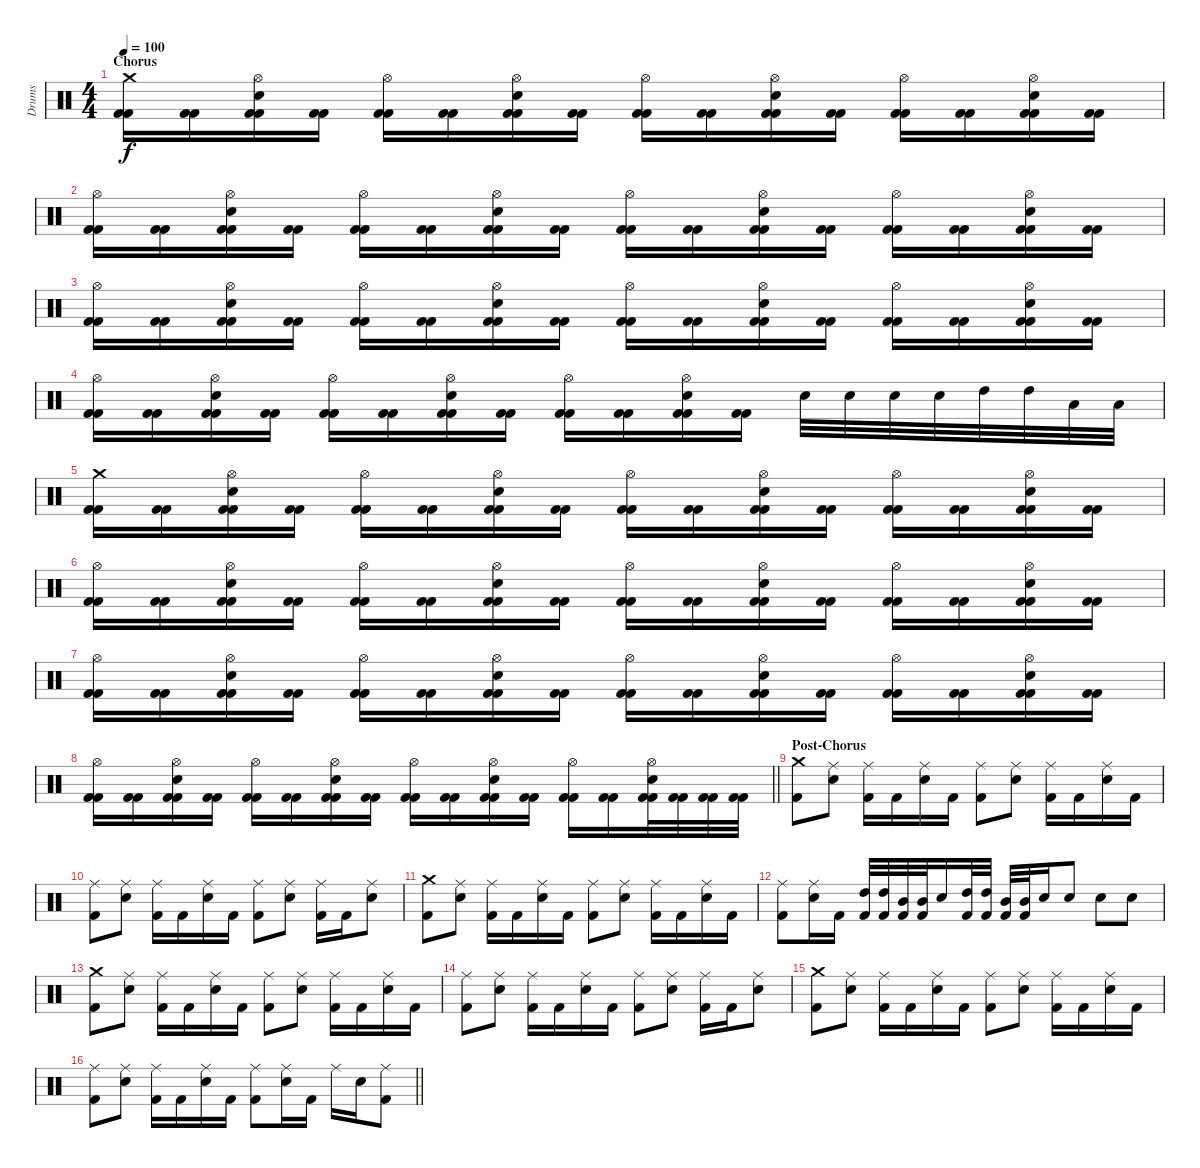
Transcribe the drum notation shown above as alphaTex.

\track ("Drums" "Drums") {instrument percussion}
\staff {score}
\articulation defaults
\ts (4 4)
\section ("" "Chorus")
\tempo 100
\clef neutral
\ks c
("Crash medium (hit)" "Kick (hit) 2" "Kick (hit) 2").16{dy f} ("Kick (hit) 2" "Kick (hit) 2").16 ("Hi-Hat (open)" "Electric Snare (hit)" "Kick (hit) 2" "Kick (hit) 2").16 ("Kick (hit) 2" "Kick (hit) 2").16 ("Hi-Hat (open)" "Kick (hit) 2" "Kick (hit) 2").16 ("Kick (hit) 2" "Kick (hit) 2").16 ("Hi-Hat (open)" "Electric Snare (hit)" "Kick (hit) 2" "Kick (hit) 2").16 ("Kick (hit) 2" "Kick (hit) 2").16 ("Hi-Hat (open)" "Kick (hit) 2" "Kick (hit) 2").16 ("Kick (hit) 2" "Kick (hit) 2").16 ("Hi-Hat (open)" "Electric Snare (hit)" "Kick (hit) 2" "Kick (hit) 2").16 ("Kick (hit) 2" "Kick (hit) 2").16 ("Hi-Hat (open)" "Kick (hit) 2" "Kick (hit) 2").16 ("Kick (hit) 2" "Kick (hit) 2").16 ("Hi-Hat (open)" "Electric Snare (hit)" "Kick (hit) 2" "Kick (hit) 2").16 ("Kick (hit) 2" "Kick (hit) 2").16 |
("Hi-Hat (open)" "Kick (hit) 2" "Kick (hit) 2").16 ("Kick (hit) 2" "Kick (hit) 2").16 ("Hi-Hat (open)" "Electric Snare (hit)" "Kick (hit) 2" "Kick (hit) 2").16 ("Kick (hit) 2" "Kick (hit) 2").16 ("Hi-Hat (open)" "Kick (hit) 2" "Kick (hit) 2").16 ("Kick (hit) 2" "Kick (hit) 2").16 ("Hi-Hat (open)" "Electric Snare (hit)" "Kick (hit) 2" "Kick (hit) 2").16 ("Kick (hit) 2" "Kick (hit) 2").16 ("Hi-Hat (open)" "Kick (hit) 2" "Kick (hit) 2").16 ("Kick (hit) 2" "Kick (hit) 2").16 ("Hi-Hat (open)" "Electric Snare (hit)" "Kick (hit) 2" "Kick (hit) 2").16 ("Kick (hit) 2" "Kick (hit) 2").16 ("Hi-Hat (open)" "Kick (hit) 2" "Kick (hit) 2").16 ("Kick (hit) 2" "Kick (hit) 2").16 ("Hi-Hat (open)" "Electric Snare (hit)" "Kick (hit) 2" "Kick (hit) 2").16 ("Kick (hit) 2" "Kick (hit) 2").16 |
("Hi-Hat (open)" "Kick (hit) 2" "Kick (hit) 2").16 ("Kick (hit) 2" "Kick (hit) 2").16 ("Hi-Hat (open)" "Electric Snare (hit)" "Kick (hit) 2" "Kick (hit) 2").16 ("Kick (hit) 2" "Kick (hit) 2").16 ("Hi-Hat (open)" "Kick (hit) 2" "Kick (hit) 2").16 ("Kick (hit) 2" "Kick (hit) 2").16 ("Hi-Hat (open)" "Electric Snare (hit)" "Kick (hit) 2" "Kick (hit) 2").16 ("Kick (hit) 2" "Kick (hit) 2").16 ("Hi-Hat (open)" "Kick (hit) 2" "Kick (hit) 2").16 ("Kick (hit) 2" "Kick (hit) 2").16 ("Hi-Hat (open)" "Electric Snare (hit)" "Kick (hit) 2" "Kick (hit) 2").16 ("Kick (hit) 2" "Kick (hit) 2").16 ("Hi-Hat (open)" "Kick (hit) 2" "Kick (hit) 2").16 ("Kick (hit) 2" "Kick (hit) 2").16 ("Hi-Hat (open)" "Electric Snare (hit)" "Kick (hit) 2" "Kick (hit) 2").16 ("Kick (hit) 2" "Kick (hit) 2").16 |
("Hi-Hat (open)" "Kick (hit) 2" "Kick (hit) 2").16 ("Kick (hit) 2" "Kick (hit) 2").16 ("Hi-Hat (open)" "Electric Snare (hit)" "Kick (hit) 2" "Kick (hit) 2").16 ("Kick (hit) 2" "Kick (hit) 2").16 ("Hi-Hat (open)" "Kick (hit) 2" "Kick (hit) 2").16 ("Kick (hit) 2" "Kick (hit) 2").16 ("Hi-Hat (open)" "Electric Snare (hit)" "Kick (hit) 2" "Kick (hit) 2").16 ("Kick (hit) 2" "Kick (hit) 2").16 ("Hi-Hat (open)" "Kick (hit) 2" "Kick (hit) 2").16 ("Kick (hit) 2" "Kick (hit) 2").16 ("Hi-Hat (open)" "Electric Snare (hit)" "Kick (hit) 2" "Kick (hit) 2").16 ("Kick (hit) 2" "Kick (hit) 2").16 "Electric Snare (hit)".32 "Electric Snare (hit)".32 "Electric Snare (hit)".32 "Electric Snare (hit)".32 "High Tom (hit)".32 "High Tom (hit)".32 "Low Tom (hit)".32 "Low Tom (hit)".32 |
("Crash medium (hit)" "Kick (hit) 2" "Kick (hit) 2").16 ("Kick (hit) 2" "Kick (hit) 2").16 ("Hi-Hat (open)" "Electric Snare (hit)" "Kick (hit) 2" "Kick (hit) 2").16 ("Kick (hit) 2" "Kick (hit) 2").16 ("Hi-Hat (open)" "Kick (hit) 2" "Kick (hit) 2").16 ("Kick (hit) 2" "Kick (hit) 2").16 ("Hi-Hat (open)" "Electric Snare (hit)" "Kick (hit) 2" "Kick (hit) 2").16 ("Kick (hit) 2" "Kick (hit) 2").16 ("Hi-Hat (open)" "Kick (hit) 2" "Kick (hit) 2").16 ("Kick (hit) 2" "Kick (hit) 2").16 ("Hi-Hat (open)" "Electric Snare (hit)" "Kick (hit) 2" "Kick (hit) 2").16 ("Kick (hit) 2" "Kick (hit) 2").16 ("Hi-Hat (open)" "Kick (hit) 2" "Kick (hit) 2").16 ("Kick (hit) 2" "Kick (hit) 2").16 ("Hi-Hat (open)" "Electric Snare (hit)" "Kick (hit) 2" "Kick (hit) 2").16 ("Kick (hit) 2" "Kick (hit) 2").16 |
("Hi-Hat (open)" "Kick (hit) 2" "Kick (hit) 2").16 ("Kick (hit) 2" "Kick (hit) 2").16 ("Hi-Hat (open)" "Electric Snare (hit)" "Kick (hit) 2" "Kick (hit) 2").16 ("Kick (hit) 2" "Kick (hit) 2").16 ("Hi-Hat (open)" "Kick (hit) 2" "Kick (hit) 2").16 ("Kick (hit) 2" "Kick (hit) 2").16 ("Hi-Hat (open)" "Electric Snare (hit)" "Kick (hit) 2" "Kick (hit) 2").16 ("Kick (hit) 2" "Kick (hit) 2").16 ("Hi-Hat (open)" "Kick (hit) 2" "Kick (hit) 2").16 ("Kick (hit) 2" "Kick (hit) 2").16 ("Hi-Hat (open)" "Electric Snare (hit)" "Kick (hit) 2" "Kick (hit) 2").16 ("Kick (hit) 2" "Kick (hit) 2").16 ("Hi-Hat (open)" "Kick (hit) 2" "Kick (hit) 2").16 ("Kick (hit) 2" "Kick (hit) 2").16 ("Hi-Hat (open)" "Electric Snare (hit)" "Kick (hit) 2" "Kick (hit) 2").16 ("Kick (hit) 2" "Kick (hit) 2").16 |
("Hi-Hat (open)" "Kick (hit) 2" "Kick (hit) 2").16 ("Kick (hit) 2" "Kick (hit) 2").16 ("Hi-Hat (open)" "Electric Snare (hit)" "Kick (hit) 2" "Kick (hit) 2").16 ("Kick (hit) 2" "Kick (hit) 2").16 ("Hi-Hat (open)" "Kick (hit) 2" "Kick (hit) 2").16 ("Kick (hit) 2" "Kick (hit) 2").16 ("Hi-Hat (open)" "Electric Snare (hit)" "Kick (hit) 2" "Kick (hit) 2").16 ("Kick (hit) 2" "Kick (hit) 2").16 ("Hi-Hat (open)" "Kick (hit) 2" "Kick (hit) 2").16 ("Kick (hit) 2" "Kick (hit) 2").16 ("Hi-Hat (open)" "Electric Snare (hit)" "Kick (hit) 2" "Kick (hit) 2").16 ("Kick (hit) 2" "Kick (hit) 2").16 ("Hi-Hat (open)" "Kick (hit) 2" "Kick (hit) 2").16 ("Kick (hit) 2" "Kick (hit) 2").16 ("Hi-Hat (open)" "Electric Snare (hit)" "Kick (hit) 2" "Kick (hit) 2").16 ("Kick (hit) 2" "Kick (hit) 2").16 |
\barLineRight lightlight
("Hi-Hat (open)" "Kick (hit) 2" "Kick (hit) 2").16 ("Kick (hit) 2" "Kick (hit) 2").16 ("Hi-Hat (open)" "Electric Snare (hit)" "Kick (hit) 2" "Kick (hit) 2").16 ("Kick (hit) 2" "Kick (hit) 2").16 ("Hi-Hat (open)" "Kick (hit) 2" "Kick (hit) 2").16 ("Kick (hit) 2" "Kick (hit) 2").16 ("Hi-Hat (open)" "Electric Snare (hit)" "Kick (hit) 2" "Kick (hit) 2").16 ("Kick (hit) 2" "Kick (hit) 2").16 ("Hi-Hat (open)" "Kick (hit) 2" "Kick (hit) 2").16 ("Kick (hit) 2" "Kick (hit) 2").16 ("Hi-Hat (open)" "Electric Snare (hit)" "Kick (hit) 2" "Kick (hit) 2").16 ("Kick (hit) 2" "Kick (hit) 2").16 ("Hi-Hat (open)" "Kick (hit) 2" "Kick (hit) 2").16 ("Kick (hit) 2" "Kick (hit) 2").16 ("Hi-Hat (open)" "Electric Snare (hit)" "Kick (hit) 2" "Kick (hit) 2").32 ("Kick (hit) 2" "Kick (hit) 2").32 ("Kick (hit) 2" "Kick (hit) 2").32 ("Kick (hit) 2" "Kick (hit) 2").32 |
\section ("" "Post-Chorus")
("Crash medium (hit)" "Kick (hit) 2").8 ("Ride (middle)" "Electric Snare (hit)").8 ("Ride (middle)" "Kick (hit) 2").16 "Kick (hit) 2".16 ("Ride (middle)" "Electric Snare (hit)").16 "Kick (hit) 2".16 ("Ride (middle)" "Kick (hit) 2").8 ("Ride (middle)" "Electric Snare (hit)").8 ("Ride (middle)" "Kick (hit) 2").16 "Kick (hit) 2".16 ("Ride (middle)" "Electric Snare (hit)").16 "Kick (hit) 2".16 |
("Ride (middle)" "Kick (hit) 2").8 ("Ride (middle)" "Electric Snare (hit)").8 ("Ride (middle)" "Kick (hit) 2").16 "Kick (hit) 2".16 ("Ride (middle)" "Electric Snare (hit)").16 "Kick (hit) 2".16 ("Ride (middle)" "Kick (hit) 2").8 ("Ride (middle)" "Electric Snare (hit)").8 ("Ride (middle)" "Kick (hit) 2").16 "Kick (hit) 2".16 ("Ride (middle)" "Electric Snare (hit)").8 |
("Crash medium (hit)" "Kick (hit) 2").8 ("Ride (middle)" "Electric Snare (hit)").8 ("Ride (middle)" "Kick (hit) 2").16 "Kick (hit) 2".16 ("Ride (middle)" "Electric Snare (hit)").16 "Kick (hit) 2".16 ("Ride (middle)" "Kick (hit) 2").8 ("Ride (middle)" "Electric Snare (hit)").8 ("Ride (middle)" "Kick (hit) 2").16 "Kick (hit) 2".16 ("Ride (middle)" "Electric Snare (hit)").16 "Kick (hit) 2".16 |
("Ride (middle)" "Kick (hit) 2").8 ("Ride (middle)" "Electric Snare (hit)").16 "Kick (hit) 2".16 ("High Tom (hit)" "Kick (hit) 2").32 ("High Tom (hit)" "Kick (hit) 2").32 ("Mid Tom (hit)" "Kick (hit) 2").32 ("Mid Tom (hit)" "Kick (hit) 2").32 "Electric Snare (hit)".16 ("High Tom (hit)" "Kick (hit) 2").32 ("High Tom (hit)" "Kick (hit) 2").32 ("Mid Tom (hit)" "Kick (hit) 2").32 ("Mid Tom (hit)" "Kick (hit) 2").32 "Electric Snare (hit)".16 "Electric Snare (hit)".8 "Electric Snare (hit)".8 "Electric Snare (hit)".8 |
("Crash medium (hit)" "Kick (hit) 2").8 ("Ride (middle)" "Electric Snare (hit)").8 ("Ride (middle)" "Kick (hit) 2").16 "Kick (hit) 2".16 ("Ride (middle)" "Electric Snare (hit)").16 "Kick (hit) 2".16 ("Ride (middle)" "Kick (hit) 2").8 ("Ride (middle)" "Electric Snare (hit)").8 ("Ride (middle)" "Kick (hit) 2").16 "Kick (hit) 2".16 ("Ride (middle)" "Electric Snare (hit)").16 "Kick (hit) 2".16 |
("Ride (middle)" "Kick (hit) 2").8 ("Ride (middle)" "Electric Snare (hit)").8 ("Ride (middle)" "Kick (hit) 2").16 "Kick (hit) 2".16 ("Ride (middle)" "Electric Snare (hit)").16 "Kick (hit) 2".16 ("Ride (middle)" "Kick (hit) 2").8 ("Ride (middle)" "Electric Snare (hit)").8 ("Ride (middle)" "Kick (hit) 2").16 "Kick (hit) 2".16 ("Ride (middle)" "Electric Snare (hit)").8 |
("Crash medium (hit)" "Kick (hit) 2").8 ("Ride (middle)" "Electric Snare (hit)").8 ("Ride (middle)" "Kick (hit) 2").16 "Kick (hit) 2".16 ("Ride (middle)" "Electric Snare (hit)").16 "Kick (hit) 2".16 ("Ride (middle)" "Kick (hit) 2").8 ("Ride (middle)" "Electric Snare (hit)").8 ("Ride (middle)" "Kick (hit) 2").16 "Kick (hit) 2".16 ("Ride (middle)" "Electric Snare (hit)").16 "Kick (hit) 2".16 |
\barLineRight lightlight
("Ride (middle)" "Kick (hit) 2").8 ("Ride (middle)" "Electric Snare (hit)").8 ("Ride (middle)" "Kick (hit) 2").16 "Kick (hit) 2".16 ("Ride (middle)" "Electric Snare (hit)").16 "Kick (hit) 2".16 ("Ride (middle)" "Kick (hit) 2").8 ("Ride (middle)" "Electric Snare (hit)").16 "Kick (hit) 2".16 "Ride (middle)".16 "Electric Snare (hit)".16 ("Ride (middle)" "Kick (hit) 2").8
